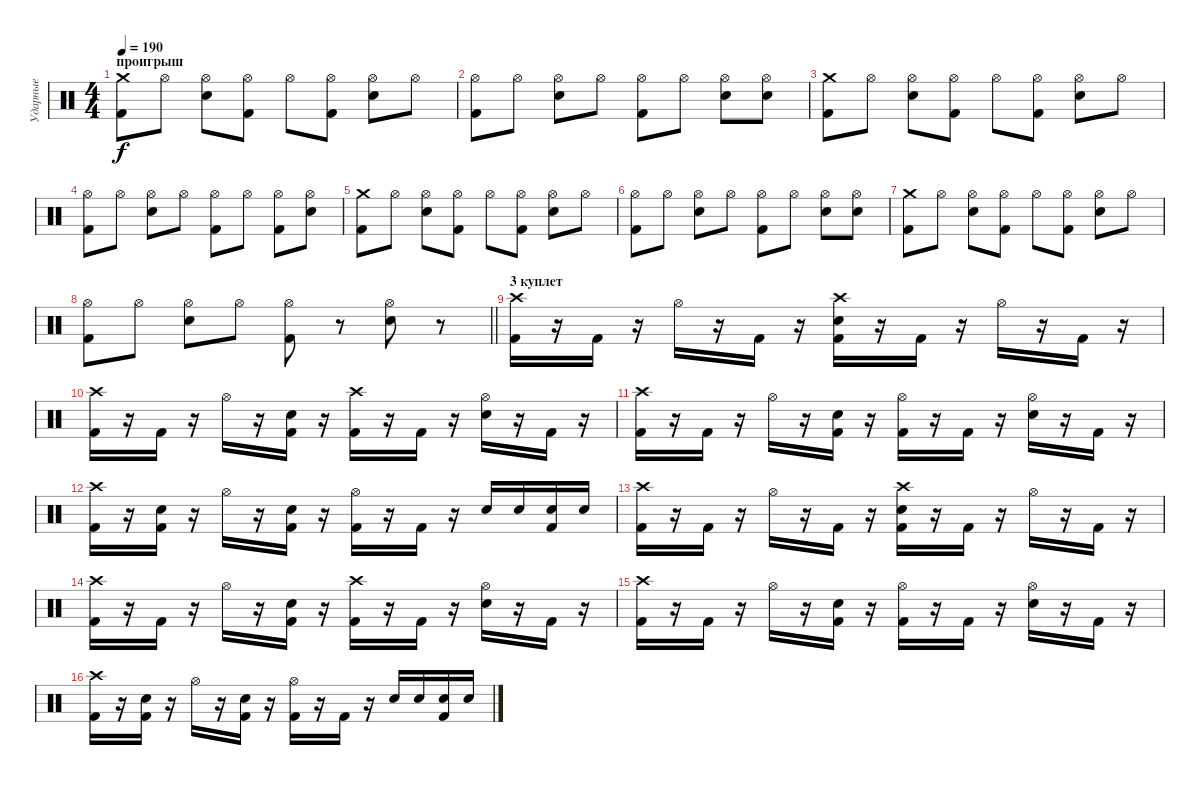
\track ("Ударные" "Ударные") {instrument percussion}
\staff {score}
\articulation defaults
\ts (4 4)
\section ("" "проигрыш")
\tempo 190
\clef neutral
\ks c
("Crash medium (hit)" "Kick (hit) 2").8{dy f} "Hi-Hat (open)".8 ("Hi-Hat (open)" "Electric Snare (hit)").8 ("Hi-Hat (open)" "Kick (hit) 2").8 "Hi-Hat (open)".8 ("Hi-Hat (open)" "Kick (hit) 2").8 ("Hi-Hat (open)" "Electric Snare (hit)").8 "Hi-Hat (open)".8 |
("Hi-Hat (open)" "Kick (hit) 2").8 "Hi-Hat (open)".8 ("Hi-Hat (open)" "Electric Snare (hit)").8 "Hi-Hat (open)".8 ("Hi-Hat (open)" "Kick (hit) 2").8 "Hi-Hat (open)".8 ("Hi-Hat (open)" "Electric Snare (hit)").8 ("Hi-Hat (open)" "Electric Snare (hit)").8 |
("Crash medium (hit)" "Kick (hit) 2").8 "Hi-Hat (open)".8 ("Hi-Hat (open)" "Electric Snare (hit)").8 ("Hi-Hat (open)" "Kick (hit) 2").8 "Hi-Hat (open)".8 ("Hi-Hat (open)" "Kick (hit) 2").8 ("Hi-Hat (open)" "Electric Snare (hit)").8 "Hi-Hat (open)".8 |
("Hi-Hat (open)" "Kick (hit) 2").8 "Hi-Hat (open)".8 ("Hi-Hat (open)" "Electric Snare (hit)").8 "Hi-Hat (open)".8 ("Hi-Hat (open)" "Kick (hit) 2").8 "Hi-Hat (open)".8 ("Hi-Hat (open)" "Kick (hit) 2").8 ("Hi-Hat (open)" "Electric Snare (hit)").8 |
("Crash medium (hit)" "Kick (hit) 2").8 "Hi-Hat (open)".8 ("Hi-Hat (open)" "Electric Snare (hit)").8 ("Hi-Hat (open)" "Kick (hit) 2").8 "Hi-Hat (open)".8 ("Hi-Hat (open)" "Kick (hit) 2").8 ("Hi-Hat (open)" "Electric Snare (hit)").8 "Hi-Hat (open)".8 |
("Hi-Hat (open)" "Kick (hit) 2").8 "Hi-Hat (open)".8 ("Hi-Hat (open)" "Electric Snare (hit)").8 "Hi-Hat (open)".8 ("Hi-Hat (open)" "Kick (hit) 2").8 "Hi-Hat (open)".8 ("Hi-Hat (open)" "Electric Snare (hit)").8 ("Hi-Hat (open)" "Electric Snare (hit)").8 |
("Crash medium (hit)" "Kick (hit) 2").8 "Hi-Hat (open)".8 ("Hi-Hat (open)" "Electric Snare (hit)").8 ("Hi-Hat (open)" "Kick (hit) 2").8 "Hi-Hat (open)".8 ("Hi-Hat (open)" "Kick (hit) 2").8 ("Hi-Hat (open)" "Electric Snare (hit)").8 "Hi-Hat (open)".8 |
\barLineRight lightlight
("Hi-Hat (open)" "Kick (hit) 2").8 "Hi-Hat (open)".8 ("Hi-Hat (open)" "Electric Snare (hit)").8 "Hi-Hat (open)".8 ("Hi-Hat (open)" "Kick (hit) 2").8 r.8 ("Hi-Hat (open)" "Electric Snare (hit)").8 r.8 |
\section ("" "3 куплет")
("Kick (hit) 2" "Crash high (hit)").16 r.16 "Kick (hit) 2".16 r.16 "Hi-Hat (open)".16 r.16 "Kick (hit) 2".16 r.16 ("Kick (hit) 2" "Electric Snare (hit)" "Crash high (hit)").16 r.16 "Kick (hit) 2".16 r.16 "Hi-Hat (open)".16 r.16 "Kick (hit) 2".16 r.16 |
("Kick (hit) 2" "Crash high (hit)").16 r.16 "Kick (hit) 2".16 r.16 "Hi-Hat (open)".16 r.16 ("Kick (hit) 2" "Electric Snare (hit)").16 r.16 ("Kick (hit) 2" "Crash high (hit)").16 r.16 "Kick (hit) 2".16 r.16 ("Electric Snare (hit)" "Hi-Hat (open)").16 r.16 "Kick (hit) 2".16 r.16 |
("Kick (hit) 2" "Crash high (hit)").16 r.16 "Kick (hit) 2".16 r.16 "Hi-Hat (open)".16 r.16 ("Kick (hit) 2" "Electric Snare (hit)").16 r.16 ("Kick (hit) 2" "Hi-Hat (open)").16 r.16 "Kick (hit) 2".16 r.16 ("Electric Snare (hit)" "Hi-Hat (open)").16 r.16 "Kick (hit) 2".16 r.16 |
("Kick (hit) 2" "Crash high (hit)").16 r.16 ("Kick (hit) 2" "Electric Snare (hit)").16 r.16 "Hi-Hat (open)".16 r.16 ("Kick (hit) 2" "Electric Snare (hit)").16 r.16 ("Kick (hit) 2" "Hi-Hat (open)").16 r.16 "Kick (hit) 2".16 r.16 "Electric Snare (hit)".16 "Electric Snare (hit)".16 ("Kick (hit) 2" "Electric Snare (hit)").16 "Electric Snare (hit)".16 |
("Kick (hit) 2" "Crash high (hit)").16 r.16 "Kick (hit) 2".16 r.16 "Hi-Hat (open)".16 r.16 "Kick (hit) 2".16 r.16 ("Kick (hit) 2" "Electric Snare (hit)" "Crash high (hit)").16 r.16 "Kick (hit) 2".16 r.16 "Hi-Hat (open)".16 r.16 "Kick (hit) 2".16 r.16 |
("Kick (hit) 2" "Crash high (hit)").16 r.16 "Kick (hit) 2".16 r.16 "Hi-Hat (open)".16 r.16 ("Kick (hit) 2" "Electric Snare (hit)").16 r.16 ("Kick (hit) 2" "Crash high (hit)").16 r.16 "Kick (hit) 2".16 r.16 ("Electric Snare (hit)" "Hi-Hat (open)").16 r.16 "Kick (hit) 2".16 r.16 |
("Kick (hit) 2" "Crash high (hit)").16 r.16 "Kick (hit) 2".16 r.16 "Hi-Hat (open)".16 r.16 ("Kick (hit) 2" "Electric Snare (hit)").16 r.16 ("Kick (hit) 2" "Hi-Hat (open)").16 r.16 "Kick (hit) 2".16 r.16 ("Electric Snare (hit)" "Hi-Hat (open)").16 r.16 "Kick (hit) 2".16 r.16 |
("Kick (hit) 2" "Crash high (hit)").16 r.16 ("Kick (hit) 2" "Electric Snare (hit)").16 r.16 "Hi-Hat (open)".16 r.16 ("Kick (hit) 2" "Electric Snare (hit)").16 r.16 ("Kick (hit) 2" "Hi-Hat (open)").16 r.16 "Kick (hit) 2".16 r.16 "Electric Snare (hit)".16 "Electric Snare (hit)".16 ("Kick (hit) 2" "Electric Snare (hit)").16 "Electric Snare (hit)".16
